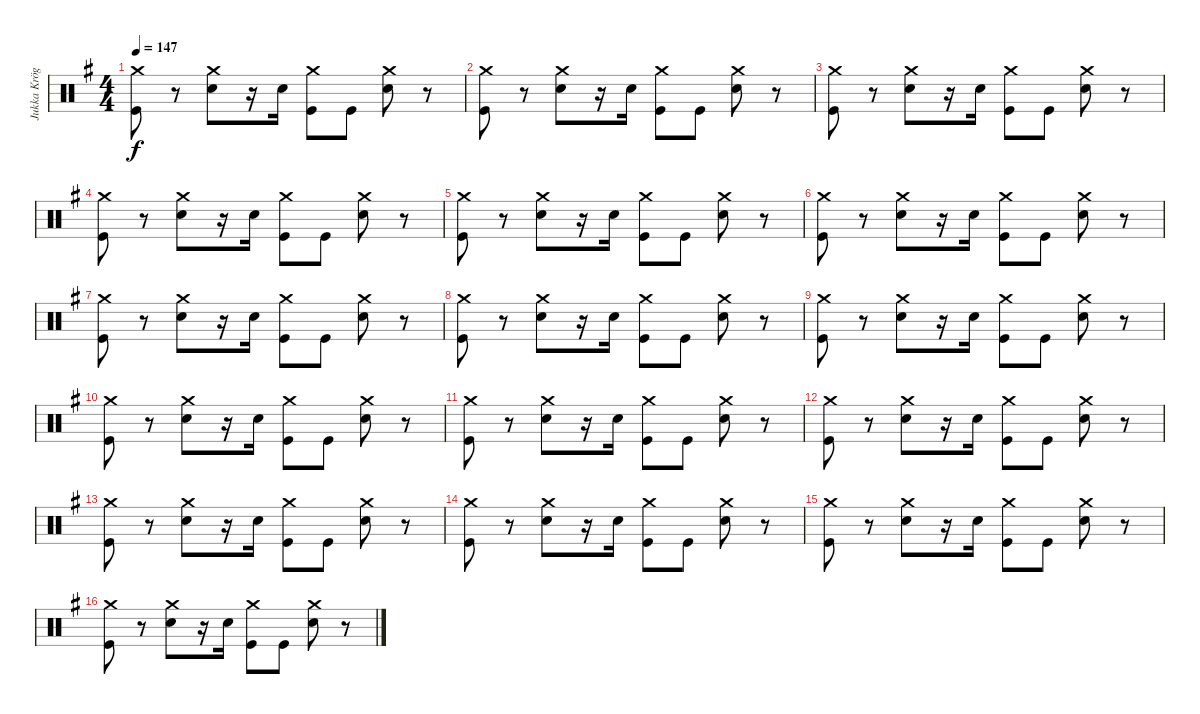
\track ("Jukka Kröger" "Jukka Krög") {instrument percussion}
\staff {score}
\articulation defaults
\ts (4 4)
\tempo 147
\clef neutral
\ks eminor
("Crash medium (hit)" "Kick (hit)").8{dy f} r.8 ("Crash medium (hit)" "Snare (hit) 2").8 r.16 "Snare (hit) 2".16 ("Crash medium (hit)" "Kick (hit)").8 "Kick (hit)".8 ("Crash medium (hit)" "Snare (hit) 2").8 r.8 |
("Crash medium (hit)" "Kick (hit)").8 r.8 ("Crash medium (hit)" "Snare (hit) 2").8 r.16 "Snare (hit) 2".16 ("Crash medium (hit)" "Kick (hit)").8 "Kick (hit)".8 ("Crash medium (hit)" "Snare (hit) 2").8 r.8 |
("Crash medium (hit)" "Kick (hit)").8 r.8 ("Crash medium (hit)" "Snare (hit) 2").8 r.16 "Snare (hit) 2".16 ("Crash medium (hit)" "Kick (hit)").8 "Kick (hit)".8 ("Crash medium (hit)" "Snare (hit) 2").8 r.8 |
("Crash medium (hit)" "Kick (hit)").8 r.8 ("Crash medium (hit)" "Snare (hit) 2").8 r.16 "Snare (hit) 2".16 ("Crash medium (hit)" "Kick (hit)").8 "Kick (hit)".8 ("Crash medium (hit)" "Snare (hit) 2").8 r.8 |
("Crash medium (hit)" "Kick (hit)").8 r.8 ("Crash medium (hit)" "Snare (hit) 2").8 r.16 "Snare (hit) 2".16 ("Crash medium (hit)" "Kick (hit)").8 "Kick (hit)".8 ("Crash medium (hit)" "Snare (hit) 2").8 r.8 |
("Crash medium (hit)" "Kick (hit)").8 r.8 ("Crash medium (hit)" "Snare (hit) 2").8 r.16 "Snare (hit) 2".16 ("Crash medium (hit)" "Kick (hit)").8 "Kick (hit)".8 ("Crash medium (hit)" "Snare (hit) 2").8 r.8 |
("Crash medium (hit)" "Kick (hit)").8 r.8 ("Crash medium (hit)" "Snare (hit) 2").8 r.16 "Snare (hit) 2".16 ("Crash medium (hit)" "Kick (hit)").8 "Kick (hit)".8 ("Crash medium (hit)" "Snare (hit) 2").8 r.8 |
("Crash medium (hit)" "Kick (hit)").8 r.8 ("Crash medium (hit)" "Snare (hit) 2").8 r.16 "Snare (hit) 2".16 ("Crash medium (hit)" "Kick (hit)").8 "Kick (hit)".8 ("Crash medium (hit)" "Snare (hit) 2").8 r.8 |
("Crash medium (hit)" "Kick (hit)").8 r.8 ("Crash medium (hit)" "Snare (hit) 2").8 r.16 "Snare (hit) 2".16 ("Crash medium (hit)" "Kick (hit)").8 "Kick (hit)".8 ("Crash medium (hit)" "Snare (hit) 2").8 r.8 |
("Crash medium (hit)" "Kick (hit)").8 r.8 ("Crash medium (hit)" "Snare (hit) 2").8 r.16 "Snare (hit) 2".16 ("Crash medium (hit)" "Kick (hit)").8 "Kick (hit)".8 ("Crash medium (hit)" "Snare (hit) 2").8 r.8 |
("Crash medium (hit)" "Kick (hit)").8 r.8 ("Crash medium (hit)" "Snare (hit) 2").8 r.16 "Snare (hit) 2".16 ("Crash medium (hit)" "Kick (hit)").8 "Kick (hit)".8 ("Crash medium (hit)" "Snare (hit) 2").8 r.8 |
("Crash medium (hit)" "Kick (hit)").8 r.8 ("Crash medium (hit)" "Snare (hit) 2").8 r.16 "Snare (hit) 2".16 ("Crash medium (hit)" "Kick (hit)").8 "Kick (hit)".8 ("Crash medium (hit)" "Snare (hit) 2").8 r.8 |
("Crash medium (hit)" "Kick (hit)").8 r.8 ("Crash medium (hit)" "Snare (hit) 2").8 r.16 "Snare (hit) 2".16 ("Crash medium (hit)" "Kick (hit)").8 "Kick (hit)".8 ("Crash medium (hit)" "Snare (hit) 2").8 r.8 |
("Crash medium (hit)" "Kick (hit)").8 r.8 ("Crash medium (hit)" "Snare (hit) 2").8 r.16 "Snare (hit) 2".16 ("Crash medium (hit)" "Kick (hit)").8 "Kick (hit)".8 ("Crash medium (hit)" "Snare (hit) 2").8 r.8 |
("Crash medium (hit)" "Kick (hit)").8 r.8 ("Crash medium (hit)" "Snare (hit) 2").8 r.16 "Snare (hit) 2".16 ("Crash medium (hit)" "Kick (hit)").8 "Kick (hit)".8 ("Crash medium (hit)" "Snare (hit) 2").8 r.8 |
("Crash medium (hit)" "Kick (hit)").8 r.8 ("Crash medium (hit)" "Snare (hit) 2").8 r.16 "Snare (hit) 2".16 ("Crash medium (hit)" "Kick (hit)").8 "Kick (hit)".8 ("Crash medium (hit)" "Snare (hit) 2").8 r.8
